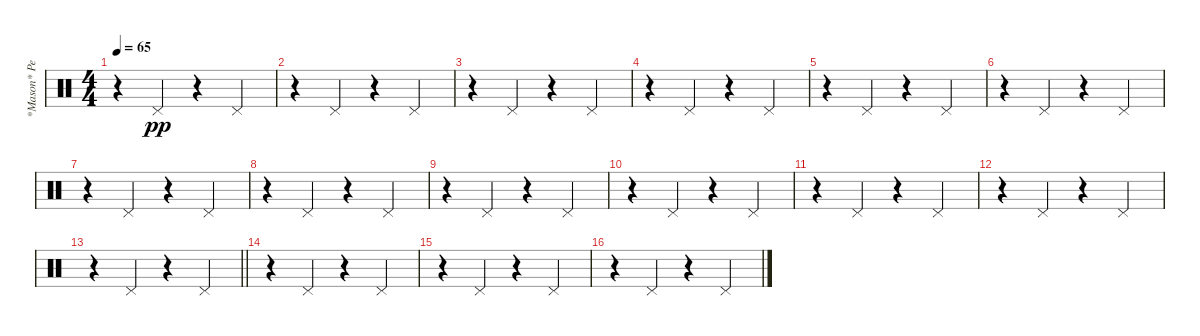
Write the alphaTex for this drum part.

\track ("*Mason* Percussion" "*Mason* Pe") {instrument percussion}
\staff {score}
\articulation defaults
\ts (4 4)
\tempo 65
\clef neutral
\ks c
r.4{dy pp} "Pedal Hi-Hat (hit)".4 r.4 "Pedal Hi-Hat (hit)".4 |
r.4 "Pedal Hi-Hat (hit)".4 r.4 "Pedal Hi-Hat (hit)".4 |
r.4 "Pedal Hi-Hat (hit)".4 r.4 "Pedal Hi-Hat (hit)".4 |
r.4 "Pedal Hi-Hat (hit)".4 r.4 "Pedal Hi-Hat (hit)".4 |
r.4 "Pedal Hi-Hat (hit)".4 r.4 "Pedal Hi-Hat (hit)".4 |
r.4 "Pedal Hi-Hat (hit)".4 r.4 "Pedal Hi-Hat (hit)".4 |
r.4 "Pedal Hi-Hat (hit)".4 r.4 "Pedal Hi-Hat (hit)".4 |
r.4 "Pedal Hi-Hat (hit)".4 r.4 "Pedal Hi-Hat (hit)".4 |
r.4 "Pedal Hi-Hat (hit)".4 r.4 "Pedal Hi-Hat (hit)".4 |
r.4 "Pedal Hi-Hat (hit)".4 r.4 "Pedal Hi-Hat (hit)".4 |
r.4 "Pedal Hi-Hat (hit)".4 r.4 "Pedal Hi-Hat (hit)".4 |
r.4 "Pedal Hi-Hat (hit)".4 r.4 "Pedal Hi-Hat (hit)".4 |
\barLineRight lightlight
r.4 "Pedal Hi-Hat (hit)".4 r.4 "Pedal Hi-Hat (hit)".4 |
r.4 "Pedal Hi-Hat (hit)".4 r.4 "Pedal Hi-Hat (hit)".4 |
r.4 "Pedal Hi-Hat (hit)".4 r.4 "Pedal Hi-Hat (hit)".4 |
r.4 "Pedal Hi-Hat (hit)".4 r.4 "Pedal Hi-Hat (hit)".4
